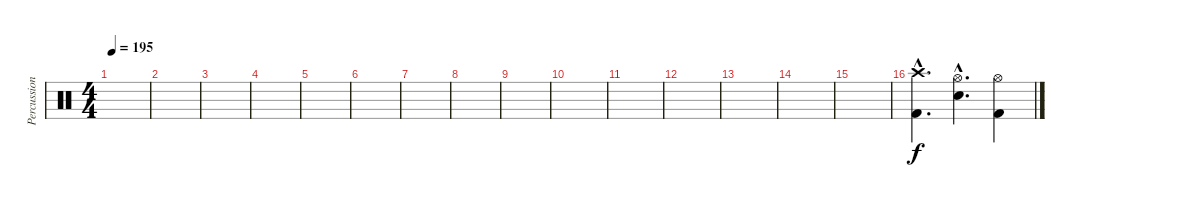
\track ("Percussion" "Percussion") {instrument percussion}
\staff {score}
\articulation defaults
\ts (4 4)
\tempo 195
\clef neutral
\ks c
|
|
|
|
|
|
|
|
|
|
|
|
|
|
|
("Crash high (hit)"{hac} "Kick (hit) 2"{hac}).4{d} ("Hi-Hat (open)"{hac} "Snare (hit) 2"{hac}).4{d} ("Hi-Hat (open)" "Kick (hit) 2").4
